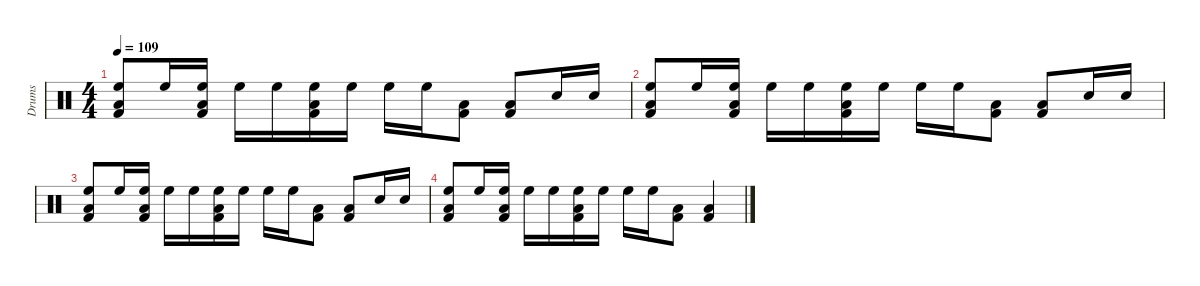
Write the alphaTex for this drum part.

\defaultSystemsLayout 4
\hideDynamics
\bracketExtendMode nobrackets
\otherSystemsTrackNameOrientation horizontal
\track ("Drums" "Drums") {instrument percussion}
\staff {score}
\articulation defaults
\ts (4 4)
\tempo 109
\clef neutral
\scale
0.5
\ks c
("Kick (hit) 2" "Low Tom (hit)" "High Floor Tom (hit)").8{dy mp beam Up} "High Floor Tom (hit)".16{beam Up} ("Kick (hit) 2" "Low Tom (hit)" "High Floor Tom (hit)").16{beam Up} "High Floor Tom (hit)".16{beam Down} "High Floor Tom (hit)".16{beam Down} ("Kick (hit) 2" "Low Tom (hit)" "High Floor Tom (hit)").16{beam Down} "High Floor Tom (hit)".16{beam Down} "High Floor Tom (hit)".16{beam Down} "High Floor Tom (hit)".16{beam Down} ("Kick (hit) 2" "Low Tom (hit)").8{beam Down} ("Kick (hit) 2" "Low Tom (hit)").8{beam Up} "Snare (hit) 2".16{beam Up} "Snare (hit) 2".16{beam Up} |
\scale
0.5 ("Kick (hit) 2" "Low Tom (hit)" "High Floor Tom (hit)").8{beam Up} "High Floor Tom (hit)".16{beam Up} ("Kick (hit) 2" "Low Tom (hit)" "High Floor Tom (hit)").16{beam Up} "High Floor Tom (hit)".16{beam Down} "High Floor Tom (hit)".16{beam Down} ("Kick (hit) 2" "Low Tom (hit)" "High Floor Tom (hit)").16{beam Down} "High Floor Tom (hit)".16{beam Down} "High Floor Tom (hit)".16{beam Down} "High Floor Tom (hit)".16{beam Down} ("Kick (hit) 2" "Low Tom (hit)").8{beam Down} ("Kick (hit) 2" "Low Tom (hit)").8{beam Up} "Snare (hit) 2".16{beam Up} "Snare (hit) 2".16{beam Up} |
\scale
0.5 ("Kick (hit) 2" "Low Tom (hit)" "High Floor Tom (hit)").8{beam Up} "High Floor Tom (hit)".16{beam Up} ("Kick (hit) 2" "Low Tom (hit)" "High Floor Tom (hit)").16{beam Up} "High Floor Tom (hit)".16{beam Down} "High Floor Tom (hit)".16{beam Down} ("Kick (hit) 2" "Low Tom (hit)" "High Floor Tom (hit)").16{beam Down} "High Floor Tom (hit)".16{beam Down} "High Floor Tom (hit)".16{beam Down} "High Floor Tom (hit)".16{beam Down} ("Kick (hit) 2" "Low Tom (hit)").8{beam Down} ("Kick (hit) 2" "Low Tom (hit)").8{beam Up} "Snare (hit) 2".16{beam Up} "Snare (hit) 2".16{beam Up} |
\scale
0.5 ("Kick (hit) 2" "Low Tom (hit)" "High Floor Tom (hit)").8{beam Up} "High Floor Tom (hit)".16{beam Up} ("Kick (hit) 2" "Low Tom (hit)" "High Floor Tom (hit)").16{beam Up} "High Floor Tom (hit)".16{beam Down} "High Floor Tom (hit)".16{beam Down} ("Kick (hit) 2" "Low Tom (hit)" "High Floor Tom (hit)").16{beam Down} "High Floor Tom (hit)".16{beam Down} "High Floor Tom (hit)".16{beam Down} "High Floor Tom (hit)".16{beam Down} ("Kick (hit) 2" "Low Tom (hit)").8{beam Down} ("Kick (hit) 2" "Low Tom (hit)").4{beam Up}
